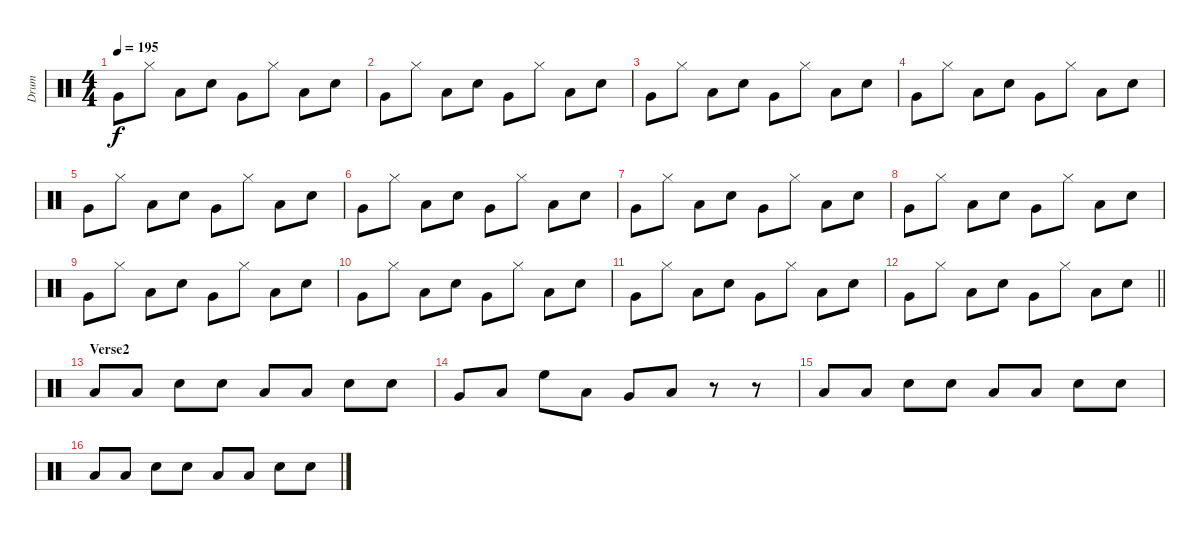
\track ("Drum" "Drum") {instrument percussion}
\staff {score}
\articulation defaults
\ts (4 4)
\tempo 195
\clef neutral
\ks c "Very Low Tom (hit)".8{dy f} "Hi-Hat (closed)".8 "Low Floor Tom (hit)".8 "Electric Snare (hit)".8 "Very Low Tom (hit)".8 "Hi-Hat (closed)".8 "Low Floor Tom (hit)".8 "Electric Snare (hit)".8
|
"Very Low Tom (hit)".8 "Hi-Hat (closed)".8 "Low Floor Tom (hit)".8 "Electric Snare (hit)".8 "Very Low Tom (hit)".8 "Hi-Hat (closed)".8 "Low Floor Tom (hit)".8 "Electric Snare (hit)".8 |
"Very Low Tom (hit)".8 "Hi-Hat (closed)".8 "Low Floor Tom (hit)".8 "Electric Snare (hit)".8 "Very Low Tom (hit)".8 "Hi-Hat (closed)".8 "Low Floor Tom (hit)".8 "Electric Snare (hit)".8 |
"Very Low Tom (hit)".8 "Hi-Hat (closed)".8 "Low Floor Tom (hit)".8 "Electric Snare (hit)".8 "Very Low Tom (hit)".8 "Hi-Hat (closed)".8 "Low Floor Tom (hit)".8 "Electric Snare (hit)".8 |
"Very Low Tom (hit)".8 "Hi-Hat (closed)".8 "Low Floor Tom (hit)".8 "Electric Snare (hit)".8 "Very Low Tom (hit)".8 "Hi-Hat (closed)".8 "Low Floor Tom (hit)".8 "Electric Snare (hit)".8 |
"Very Low Tom (hit)".8 "Hi-Hat (closed)".8 "Low Floor Tom (hit)".8 "Electric Snare (hit)".8 "Very Low Tom (hit)".8 "Hi-Hat (closed)".8 "Low Floor Tom (hit)".8 "Electric Snare (hit)".8 |
"Very Low Tom (hit)".8 "Hi-Hat (closed)".8 "Low Floor Tom (hit)".8 "Electric Snare (hit)".8 "Very Low Tom (hit)".8 "Hi-Hat (closed)".8 "Low Floor Tom (hit)".8 "Electric Snare (hit)".8 |
"Very Low Tom (hit)".8 "Hi-Hat (closed)".8 "Low Floor Tom (hit)".8 "Electric Snare (hit)".8 "Very Low Tom (hit)".8 "Hi-Hat (closed)".8 "Low Floor Tom (hit)".8 "Electric Snare (hit)".8 |
"Very Low Tom (hit)".8 "Hi-Hat (closed)".8 "Low Floor Tom (hit)".8 "Electric Snare (hit)".8 "Very Low Tom (hit)".8 "Hi-Hat (closed)".8 "Low Floor Tom (hit)".8 "Electric Snare (hit)".8 |
"Very Low Tom (hit)".8 "Hi-Hat (closed)".8 "Low Floor Tom (hit)".8 "Electric Snare (hit)".8 "Very Low Tom (hit)".8 "Hi-Hat (closed)".8 "Low Floor Tom (hit)".8 "Electric Snare (hit)".8 |
"Very Low Tom (hit)".8 "Hi-Hat (closed)".8 "Low Floor Tom (hit)".8 "Electric Snare (hit)".8 "Very Low Tom (hit)".8 "Hi-Hat (closed)".8 "Low Floor Tom (hit)".8 "Electric Snare (hit)".8 |
\barLineRight lightlight "Very Low Tom (hit)".8 "Hi-Hat (closed)".8 "Low Floor Tom (hit)".8 "Electric Snare (hit)".8 "Very Low Tom (hit)".8 "Hi-Hat (closed)".8 "Low Floor Tom (hit)".8 "Electric Snare (hit)".8
|
\section ("" "Verse2")
"Low Floor Tom (hit)".8 "Low Floor Tom (hit)".8 "Electric Snare (hit)".8 "Electric Snare (hit)".8 "Low Floor Tom (hit)".8 "Low Floor Tom (hit)".8 "Electric Snare (hit)".8 "Electric Snare (hit)".8 |
"Very Low Tom (hit)".8 "Low Floor Tom (hit)".8 "High Floor Tom (hit)".8 "Low Floor Tom (hit)".8 "Very Low Tom (hit)".8 "Low Floor Tom (hit)".8 r.8 r.8 |
"Low Floor Tom (hit)".8 "Low Floor Tom (hit)".8 "Electric Snare (hit)".8 "Electric Snare (hit)".8 "Low Floor Tom (hit)".8 "Low Floor Tom (hit)".8 "Electric Snare (hit)".8 "Electric Snare (hit)".8 |
"Low Floor Tom (hit)".8 "Low Floor Tom (hit)".8 "Electric Snare (hit)".8 "Electric Snare (hit)".8 "Low Floor Tom (hit)".8 "Low Floor Tom (hit)".8 "Electric Snare (hit)".8 "Electric Snare (hit)".8
